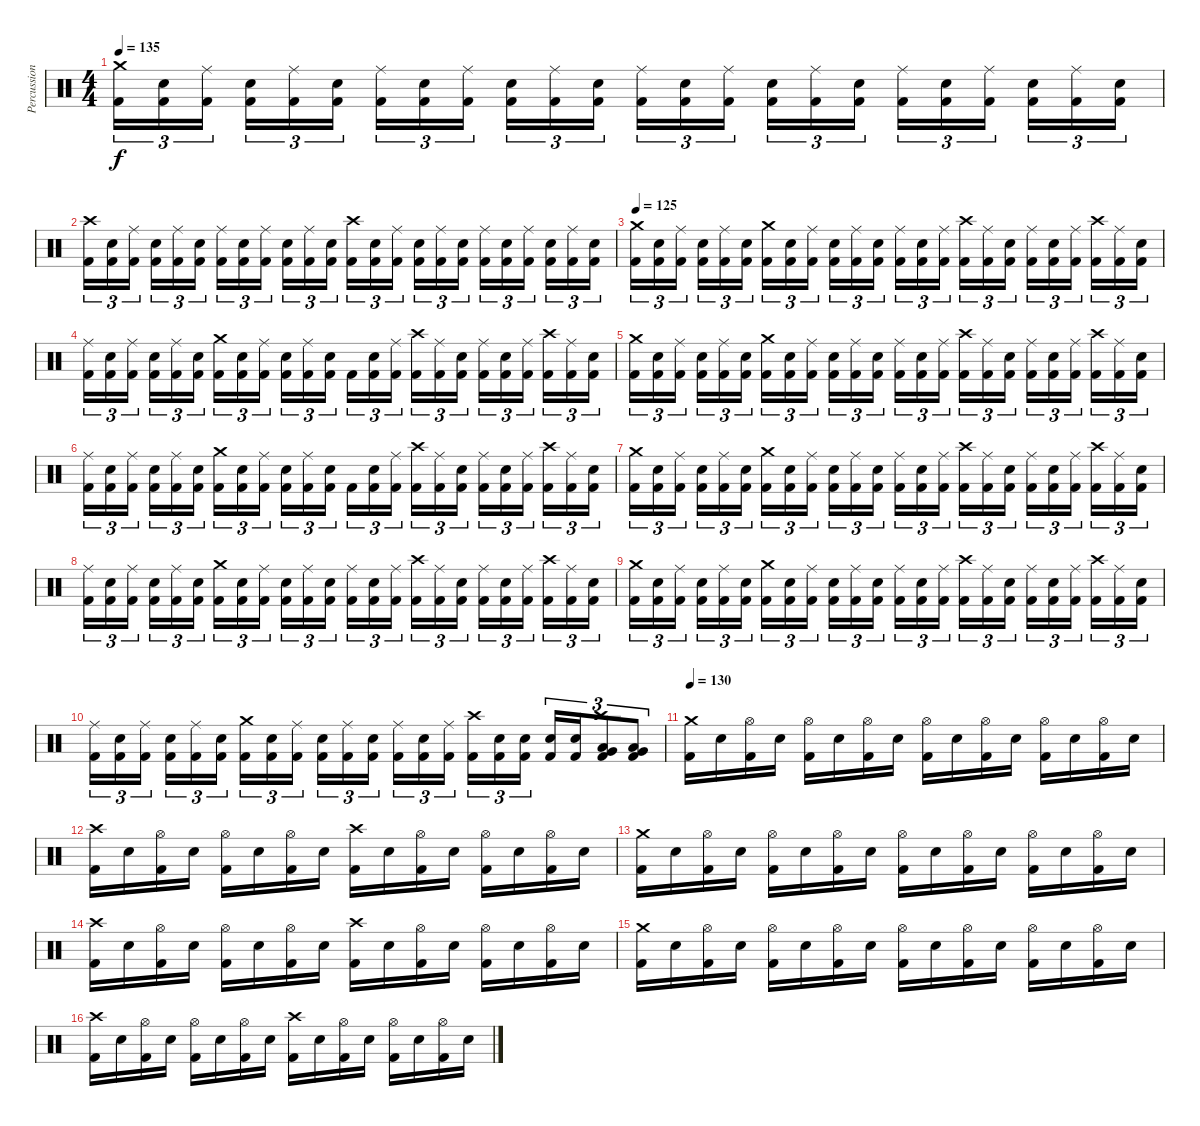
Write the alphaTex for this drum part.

\track ("Percussion" "Percussion") {instrument percussion}
\staff {score}
\articulation defaults
\ts (4 4)
\tempo 135
\clef neutral
\ks c
("Kick (hit) 2" "Crash medium (hit)").16{tu (3 2) dy f} ("Kick (hit) 2" "Electric Snare (hit)").16{tu (3 2)} ("Kick (hit) 2" "Ride (middle)").16{tu (3 2)} ("Kick (hit) 2" "Electric Snare (hit)").16{tu (3 2)} ("Kick (hit) 2" "Ride (middle)").16{tu (3 2)} ("Kick (hit) 2" "Electric Snare (hit)").16{tu (3 2)} ("Kick (hit) 2" "Ride (middle)").16{tu (3 2)} ("Kick (hit) 2" "Electric Snare (hit)").16{tu (3 2)} ("Kick (hit) 2" "Ride (middle)").16{tu (3 2)} ("Kick (hit) 2" "Electric Snare (hit)").16{tu (3 2)} ("Kick (hit) 2" "Ride (middle)").16{tu (3 2)} ("Kick (hit) 2" "Electric Snare (hit)").16{tu (3 2)} ("Kick (hit) 2" "Ride (middle)").16{tu (3 2)} ("Kick (hit) 2" "Electric Snare (hit)").16{tu (3 2)} ("Kick (hit) 2" "Ride (middle)").16{tu (3 2)} ("Kick (hit) 2" "Electric Snare (hit)").16{tu (3 2)} ("Kick (hit) 2" "Ride (middle)").16{tu (3 2)} ("Kick (hit) 2" "Electric Snare (hit)").16{tu (3 2)} ("Kick (hit) 2" "Ride (middle)").16{tu (3 2)} ("Kick (hit) 2" "Electric Snare (hit)").16{tu (3 2)} ("Kick (hit) 2" "Ride (middle)").16{tu (3 2)} ("Kick (hit) 2" "Electric Snare (hit)").16{tu (3 2)} ("Kick (hit) 2" "Ride (middle)").16{tu (3 2)} ("Kick (hit) 2" "Electric Snare (hit)").16{tu (3 2)} |
("Kick (hit) 2" "Crash high (hit)").16{tu (3 2)} ("Kick (hit) 2" "Electric Snare (hit)").16{tu (3 2)} ("Kick (hit) 2" "Ride (middle)").16{tu (3 2)} ("Kick (hit) 2" "Electric Snare (hit)").16{tu (3 2)} ("Kick (hit) 2" "Ride (middle)").16{tu (3 2)} ("Kick (hit) 2" "Electric Snare (hit)").16{tu (3 2)} ("Kick (hit) 2" "Ride (middle)").16{tu (3 2)} ("Kick (hit) 2" "Electric Snare (hit)").16{tu (3 2)} ("Kick (hit) 2" "Ride (middle)").16{tu (3 2)} ("Kick (hit) 2" "Electric Snare (hit)").16{tu (3 2)} ("Kick (hit) 2" "Ride (middle)").16{tu (3 2)} ("Kick (hit) 2" "Electric Snare (hit)").16{tu (3 2)} ("Kick (hit) 2" "Crash high (hit)").16{tu (3 2)} ("Kick (hit) 2" "Electric Snare (hit)").16{tu (3 2)} ("Kick (hit) 2" "Ride (middle)").16{tu (3 2)} ("Kick (hit) 2" "Electric Snare (hit)").16{tu (3 2)} ("Kick (hit) 2" "Ride (middle)").16{tu (3 2)} ("Kick (hit) 2" "Electric Snare (hit)").16{tu (3 2)} ("Kick (hit) 2" "Ride (middle)").16{tu (3 2)} ("Kick (hit) 2" "Electric Snare (hit)").16{tu (3 2)} ("Kick (hit) 2" "Ride (middle)").16{tu (3 2)} ("Kick (hit) 2" "Electric Snare (hit)").16{tu (3 2)} ("Kick (hit) 2" "Ride (middle)").16{tu (3 2)} ("Kick (hit) 2" "Electric Snare (hit)").16{tu (3 2)} |
\tempo 125
("Kick (hit) 2" "Crash medium (hit)").16{tu (3 2)} ("Kick (hit) 2" "Electric Snare (hit)").16{tu (3 2)} ("Kick (hit) 2" "Ride (middle)").16{tu (3 2)} ("Kick (hit) 2" "Electric Snare (hit)").16{tu (3 2)} ("Kick (hit) 2" "Ride (middle)").16{tu (3 2)} ("Kick (hit) 2" "Electric Snare (hit)").16{tu (3 2)} ("Kick (hit) 2" "Crash medium (hit)").16{tu (3 2)} ("Kick (hit) 2" "Electric Snare (hit)").16{tu (3 2)} ("Kick (hit) 2" "Ride (middle)").16{tu (3 2)} ("Kick (hit) 2" "Electric Snare (hit)").16{tu (3 2)} ("Kick (hit) 2" "Ride (middle)").16{tu (3 2)} ("Kick (hit) 2" "Electric Snare (hit)").16{tu (3 2)} ("Kick (hit) 2" "Ride (middle)").16{tu (3 2)} ("Kick (hit) 2" "Electric Snare (hit)").16{tu (3 2)} ("Kick (hit) 2" "Ride (middle)").16{tu (3 2)} ("Kick (hit) 2" "Crash high (hit)").16{tu (3 2)} ("Kick (hit) 2" "Ride (middle)").16{tu (3 2)} ("Kick (hit) 2" "Electric Snare (hit)").16{tu (3 2)} ("Kick (hit) 2" "Ride (middle)").16{tu (3 2)} ("Kick (hit) 2" "Electric Snare (hit)").16{tu (3 2)} ("Kick (hit) 2" "Ride (middle)").16{tu (3 2)} ("Kick (hit) 2" "Crash high (hit)").16{tu (3 2)} ("Kick (hit) 2" "Ride (middle)").16{tu (3 2)} ("Kick (hit) 2" "Electric Snare (hit)").16{tu (3 2)} |
("Kick (hit) 2" "Ride (middle)").16{tu (3 2)} ("Kick (hit) 2" "Electric Snare (hit)").16{tu (3 2)} ("Kick (hit) 2" "Ride (middle)").16{tu (3 2)} ("Kick (hit) 2" "Electric Snare (hit)").16{tu (3 2)} ("Kick (hit) 2" "Ride (middle)").16{tu (3 2)} ("Kick (hit) 2" "Electric Snare (hit)").16{tu (3 2)} ("Kick (hit) 2" "Crash medium (hit)").16{tu (3 2)} ("Kick (hit) 2" "Electric Snare (hit)").16{tu (3 2)} ("Kick (hit) 2" "Ride (middle)").16{tu (3 2)} ("Kick (hit) 2" "Electric Snare (hit)").16{tu (3 2)} ("Kick (hit) 2" "Ride (middle)").16{tu (3 2)} ("Kick (hit) 2" "Electric Snare (hit)").16{tu (3 2)} "Kick (hit) 2".16{tu (3 2)} ("Kick (hit) 2" "Electric Snare (hit)").16{tu (3 2)} ("Kick (hit) 2" "Ride (middle)").16{tu (3 2)} ("Kick (hit) 2" "Crash high (hit)").16{tu (3 2)} ("Kick (hit) 2" "Ride (middle)").16{tu (3 2)} ("Kick (hit) 2" "Electric Snare (hit)").16{tu (3 2)} ("Kick (hit) 2" "Ride (middle)").16{tu (3 2)} ("Kick (hit) 2" "Electric Snare (hit)").16{tu (3 2)} ("Kick (hit) 2" "Ride (middle)").16{tu (3 2)} ("Kick (hit) 2" "Crash high (hit)").16{tu (3 2)} ("Kick (hit) 2" "Ride (middle)").16{tu (3 2)} ("Kick (hit) 2" "Electric Snare (hit)").16{tu (3 2)} |
("Kick (hit) 2" "Crash medium (hit)").16{tu (3 2)} ("Kick (hit) 2" "Electric Snare (hit)").16{tu (3 2)} ("Kick (hit) 2" "Ride (middle)").16{tu (3 2)} ("Kick (hit) 2" "Electric Snare (hit)").16{tu (3 2)} ("Kick (hit) 2" "Ride (middle)").16{tu (3 2)} ("Kick (hit) 2" "Electric Snare (hit)").16{tu (3 2)} ("Kick (hit) 2" "Crash medium (hit)").16{tu (3 2)} ("Kick (hit) 2" "Electric Snare (hit)").16{tu (3 2)} ("Kick (hit) 2" "Ride (middle)").16{tu (3 2)} ("Kick (hit) 2" "Electric Snare (hit)").16{tu (3 2)} ("Kick (hit) 2" "Ride (middle)").16{tu (3 2)} ("Kick (hit) 2" "Electric Snare (hit)").16{tu (3 2)} ("Kick (hit) 2" "Ride (middle)").16{tu (3 2)} ("Kick (hit) 2" "Electric Snare (hit)").16{tu (3 2)} ("Kick (hit) 2" "Ride (middle)").16{tu (3 2)} ("Kick (hit) 2" "Crash high (hit)").16{tu (3 2)} ("Kick (hit) 2" "Ride (middle)").16{tu (3 2)} ("Kick (hit) 2" "Electric Snare (hit)").16{tu (3 2)} ("Kick (hit) 2" "Ride (middle)").16{tu (3 2)} ("Kick (hit) 2" "Electric Snare (hit)").16{tu (3 2)} ("Kick (hit) 2" "Ride (middle)").16{tu (3 2)} ("Kick (hit) 2" "Crash high (hit)").16{tu (3 2)} ("Kick (hit) 2" "Ride (middle)").16{tu (3 2)} ("Kick (hit) 2" "Electric Snare (hit)").16{tu (3 2)} |
("Kick (hit) 2" "Ride (middle)").16{tu (3 2)} ("Kick (hit) 2" "Electric Snare (hit)").16{tu (3 2)} ("Kick (hit) 2" "Ride (middle)").16{tu (3 2)} ("Kick (hit) 2" "Electric Snare (hit)").16{tu (3 2)} ("Kick (hit) 2" "Ride (middle)").16{tu (3 2)} ("Kick (hit) 2" "Electric Snare (hit)").16{tu (3 2)} ("Kick (hit) 2" "Crash medium (hit)").16{tu (3 2)} ("Kick (hit) 2" "Electric Snare (hit)").16{tu (3 2)} ("Kick (hit) 2" "Ride (middle)").16{tu (3 2)} ("Kick (hit) 2" "Electric Snare (hit)").16{tu (3 2)} ("Kick (hit) 2" "Ride (middle)").16{tu (3 2)} ("Kick (hit) 2" "Electric Snare (hit)").16{tu (3 2)} "Kick (hit) 2".16{tu (3 2)} ("Kick (hit) 2" "Electric Snare (hit)").16{tu (3 2)} ("Kick (hit) 2" "Ride (middle)").16{tu (3 2)} ("Kick (hit) 2" "Crash high (hit)").16{tu (3 2)} ("Kick (hit) 2" "Ride (middle)").16{tu (3 2)} ("Kick (hit) 2" "Electric Snare (hit)").16{tu (3 2)} ("Kick (hit) 2" "Ride (middle)").16{tu (3 2)} ("Kick (hit) 2" "Electric Snare (hit)").16{tu (3 2)} ("Kick (hit) 2" "Ride (middle)").16{tu (3 2)} ("Kick (hit) 2" "Crash high (hit)").16{tu (3 2)} ("Kick (hit) 2" "Ride (middle)").16{tu (3 2)} ("Kick (hit) 2" "Electric Snare (hit)").16{tu (3 2)} |
("Kick (hit) 2" "Crash medium (hit)").16{tu (3 2)} ("Kick (hit) 2" "Electric Snare (hit)").16{tu (3 2)} ("Kick (hit) 2" "Ride (middle)").16{tu (3 2)} ("Kick (hit) 2" "Electric Snare (hit)").16{tu (3 2)} ("Kick (hit) 2" "Ride (middle)").16{tu (3 2)} ("Kick (hit) 2" "Electric Snare (hit)").16{tu (3 2)} ("Kick (hit) 2" "Crash medium (hit)").16{tu (3 2)} ("Kick (hit) 2" "Electric Snare (hit)").16{tu (3 2)} ("Kick (hit) 2" "Ride (middle)").16{tu (3 2)} ("Kick (hit) 2" "Electric Snare (hit)").16{tu (3 2)} ("Kick (hit) 2" "Ride (middle)").16{tu (3 2)} ("Kick (hit) 2" "Electric Snare (hit)").16{tu (3 2)} ("Kick (hit) 2" "Ride (middle)").16{tu (3 2)} ("Kick (hit) 2" "Electric Snare (hit)").16{tu (3 2)} ("Kick (hit) 2" "Ride (middle)").16{tu (3 2)} ("Kick (hit) 2" "Crash high (hit)").16{tu (3 2)} ("Kick (hit) 2" "Ride (middle)").16{tu (3 2)} ("Kick (hit) 2" "Electric Snare (hit)").16{tu (3 2)} ("Kick (hit) 2" "Ride (middle)").16{tu (3 2)} ("Kick (hit) 2" "Electric Snare (hit)").16{tu (3 2)} ("Kick (hit) 2" "Ride (middle)").16{tu (3 2)} ("Kick (hit) 2" "Crash high (hit)").16{tu (3 2)} ("Kick (hit) 2" "Ride (middle)").16{tu (3 2)} ("Kick (hit) 2" "Electric Snare (hit)").16{tu (3 2)} |
("Kick (hit) 2" "Ride (middle)").16{tu (3 2)} ("Kick (hit) 2" "Electric Snare (hit)").16{tu (3 2)} ("Kick (hit) 2" "Ride (middle)").16{tu (3 2)} ("Kick (hit) 2" "Electric Snare (hit)").16{tu (3 2)} ("Kick (hit) 2" "Ride (middle)").16{tu (3 2)} ("Kick (hit) 2" "Electric Snare (hit)").16{tu (3 2)} ("Kick (hit) 2" "Crash medium (hit)").16{tu (3 2)} ("Kick (hit) 2" "Electric Snare (hit)").16{tu (3 2)} ("Kick (hit) 2" "Ride (middle)").16{tu (3 2)} ("Kick (hit) 2" "Electric Snare (hit)").16{tu (3 2)} ("Kick (hit) 2" "Ride (middle)").16{tu (3 2)} ("Kick (hit) 2" "Electric Snare (hit)").16{tu (3 2)} ("Kick (hit) 2" "Ride (middle)").16{tu (3 2)} ("Kick (hit) 2" "Electric Snare (hit)").16{tu (3 2)} ("Kick (hit) 2" "Ride (middle)").16{tu (3 2)} ("Kick (hit) 2" "Crash high (hit)").16{tu (3 2)} ("Kick (hit) 2" "Ride (middle)").16{tu (3 2)} ("Kick (hit) 2" "Electric Snare (hit)").16{tu (3 2)} ("Kick (hit) 2" "Ride (middle)").16{tu (3 2)} ("Kick (hit) 2" "Electric Snare (hit)").16{tu (3 2)} ("Kick (hit) 2" "Ride (middle)").16{tu (3 2)} ("Kick (hit) 2" "Crash high (hit)").16{tu (3 2)} ("Kick (hit) 2" "Ride (middle)").16{tu (3 2)} ("Kick (hit) 2" "Electric Snare (hit)").16{tu (3 2)} |
("Kick (hit) 2" "Crash medium (hit)").16{tu (3 2)} ("Kick (hit) 2" "Electric Snare (hit)").16{tu (3 2)} ("Kick (hit) 2" "Ride (middle)").16{tu (3 2)} ("Kick (hit) 2" "Electric Snare (hit)").16{tu (3 2)} ("Kick (hit) 2" "Ride (middle)").16{tu (3 2)} ("Kick (hit) 2" "Electric Snare (hit)").16{tu (3 2)} ("Kick (hit) 2" "Crash medium (hit)").16{tu (3 2)} ("Kick (hit) 2" "Electric Snare (hit)").16{tu (3 2)} ("Kick (hit) 2" "Ride (middle)").16{tu (3 2)} ("Kick (hit) 2" "Electric Snare (hit)").16{tu (3 2)} ("Kick (hit) 2" "Ride (middle)").16{tu (3 2)} ("Kick (hit) 2" "Electric Snare (hit)").16{tu (3 2)} ("Kick (hit) 2" "Ride (middle)").16{tu (3 2)} ("Kick (hit) 2" "Electric Snare (hit)").16{tu (3 2)} ("Kick (hit) 2" "Ride (middle)").16{tu (3 2)} ("Kick (hit) 2" "Crash high (hit)").16{tu (3 2)} ("Kick (hit) 2" "Ride (middle)").16{tu (3 2)} ("Kick (hit) 2" "Electric Snare (hit)").16{tu (3 2)} ("Kick (hit) 2" "Ride (middle)").16{tu (3 2)} ("Kick (hit) 2" "Electric Snare (hit)").16{tu (3 2)} ("Kick (hit) 2" "Ride (middle)").16{tu (3 2)} ("Kick (hit) 2" "Crash high (hit)").16{tu (3 2)} ("Kick (hit) 2" "Ride (middle)").16{tu (3 2)} ("Kick (hit) 2" "Electric Snare (hit)").16{tu (3 2)} |
("Kick (hit) 2" "Ride (middle)").16{tu (3 2)} ("Kick (hit) 2" "Electric Snare (hit)").16{tu (3 2)} ("Kick (hit) 2" "Ride (middle)").16{tu (3 2)} ("Kick (hit) 2" "Electric Snare (hit)").16{tu (3 2)} ("Kick (hit) 2" "Ride (middle)").16{tu (3 2)} ("Kick (hit) 2" "Electric Snare (hit)").16{tu (3 2)} ("Kick (hit) 2" "Crash medium (hit)").16{tu (3 2)} ("Kick (hit) 2" "Electric Snare (hit)").16{tu (3 2)} ("Kick (hit) 2" "Ride (middle)").16{tu (3 2)} ("Kick (hit) 2" "Electric Snare (hit)").16{tu (3 2)} ("Kick (hit) 2" "Ride (middle)").16{tu (3 2)} ("Kick (hit) 2" "Electric Snare (hit)").16{tu (3 2)} ("Kick (hit) 2" "Ride (middle)").16{tu (3 2)} ("Kick (hit) 2" "Electric Snare (hit)").16{tu (3 2)} ("Kick (hit) 2" "Ride (middle)").16{tu (3 2)} ("Kick (hit) 2" "Crash high (hit)").16{tu (3 2)} ("Kick (hit) 2" "Electric Snare (hit)").16{tu (3 2)} ("Kick (hit) 2" "Electric Snare (hit)").16{tu (3 2)} ("Kick (hit) 2" "Electric Snare (hit)").16{tu (3 2)} ("Kick (hit) 2" "Electric Snare (hit)").16{tu (3 2)} ("Kick (hit) 2" "Low Tom (hit)" "Very Low Tom (hit)" "Crash high (hit)").8{tu (3 2)} ("Kick (hit) 2" "Low Tom (hit)" "Very Low Tom (hit)").8{tu (3 2)} |
\tempo 130
("Kick (hit) 2" "Crash medium (hit)").16 "Electric Snare (hit)".16 ("Kick (hit) 2" "Hi-Hat (open)").16 "Electric Snare (hit)".16 ("Kick (hit) 2" "Hi-Hat (open)").16 "Electric Snare (hit)".16 ("Kick (hit) 2" "Hi-Hat (open)").16 "Electric Snare (hit)".16 ("Kick (hit) 2" "Hi-Hat (open)").16 "Electric Snare (hit)".16 ("Kick (hit) 2" "Hi-Hat (open)").16 "Electric Snare (hit)".16 ("Kick (hit) 2" "Hi-Hat (open)").16 "Electric Snare (hit)".16 ("Kick (hit) 2" "Hi-Hat (open)").16 "Electric Snare (hit)".16 |
("Kick (hit) 2" "Crash high (hit)").16 "Electric Snare (hit)".16 ("Kick (hit) 2" "Hi-Hat (open)").16 "Electric Snare (hit)".16 ("Kick (hit) 2" "Hi-Hat (open)").16 "Electric Snare (hit)".16 ("Kick (hit) 2" "Hi-Hat (open)").16 "Electric Snare (hit)".16 ("Kick (hit) 2" "Crash high (hit)").16 "Electric Snare (hit)".16 ("Kick (hit) 2" "Hi-Hat (open)").16 "Electric Snare (hit)".16 ("Kick (hit) 2" "Hi-Hat (open)").16 "Electric Snare (hit)".16 ("Kick (hit) 2" "Hi-Hat (open)").16 "Electric Snare (hit)".16 |
("Kick (hit) 2" "Crash medium (hit)").16 "Electric Snare (hit)".16 ("Kick (hit) 2" "Hi-Hat (open)").16 "Electric Snare (hit)".16 ("Kick (hit) 2" "Hi-Hat (open)").16 "Electric Snare (hit)".16 ("Kick (hit) 2" "Hi-Hat (open)").16 "Electric Snare (hit)".16 ("Kick (hit) 2" "Hi-Hat (open)").16 "Electric Snare (hit)".16 ("Kick (hit) 2" "Hi-Hat (open)").16 "Electric Snare (hit)".16 ("Kick (hit) 2" "Hi-Hat (open)").16 "Electric Snare (hit)".16 ("Kick (hit) 2" "Hi-Hat (open)").16 "Electric Snare (hit)".16 |
("Kick (hit) 2" "Crash high (hit)").16 "Electric Snare (hit)".16 ("Kick (hit) 2" "Hi-Hat (open)").16 "Electric Snare (hit)".16 ("Kick (hit) 2" "Hi-Hat (open)").16 "Electric Snare (hit)".16 ("Kick (hit) 2" "Hi-Hat (open)").16 "Electric Snare (hit)".16 ("Kick (hit) 2" "Crash high (hit)").16 "Electric Snare (hit)".16 ("Kick (hit) 2" "Hi-Hat (open)").16 "Electric Snare (hit)".16 ("Kick (hit) 2" "Hi-Hat (open)").16 "Electric Snare (hit)".16 ("Kick (hit) 2" "Hi-Hat (open)").16 "Electric Snare (hit)".16 |
("Kick (hit) 2" "Crash medium (hit)").16 "Electric Snare (hit)".16 ("Kick (hit) 2" "Hi-Hat (open)").16 "Electric Snare (hit)".16 ("Kick (hit) 2" "Hi-Hat (open)").16 "Electric Snare (hit)".16 ("Kick (hit) 2" "Hi-Hat (open)").16 "Electric Snare (hit)".16 ("Kick (hit) 2" "Hi-Hat (open)").16 "Electric Snare (hit)".16 ("Kick (hit) 2" "Hi-Hat (open)").16 "Electric Snare (hit)".16 ("Kick (hit) 2" "Hi-Hat (open)").16 "Electric Snare (hit)".16 ("Kick (hit) 2" "Hi-Hat (open)").16 "Electric Snare (hit)".16 |
("Kick (hit) 2" "Crash high (hit)").16 "Electric Snare (hit)".16 ("Kick (hit) 2" "Hi-Hat (open)").16 "Electric Snare (hit)".16 ("Kick (hit) 2" "Hi-Hat (open)").16 "Electric Snare (hit)".16 ("Kick (hit) 2" "Hi-Hat (open)").16 "Electric Snare (hit)".16 ("Kick (hit) 2" "Crash high (hit)").16 "Electric Snare (hit)".16 ("Kick (hit) 2" "Hi-Hat (open)").16 "Electric Snare (hit)".16 ("Kick (hit) 2" "Hi-Hat (open)").16 "Electric Snare (hit)".16 ("Kick (hit) 2" "Hi-Hat (open)").16 "Electric Snare (hit)".16
